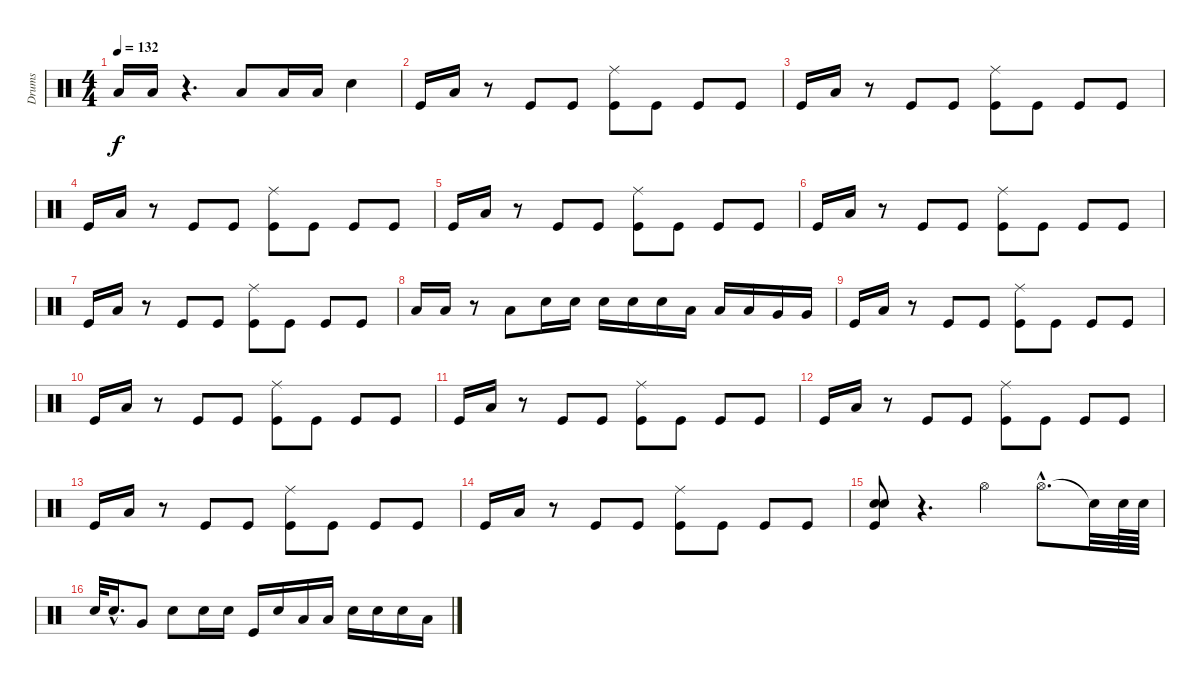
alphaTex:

\track ("Drums" "Drums") {instrument percussion}
\staff {score}
\articulation defaults
\ts (4 4)
\tempo 132
\clef neutral
\ks c "Low Tom (hit)".16{dy f} "Low Tom (hit)".16
r.4{d} "Low Tom (hit)".8 "Low Tom (hit)".16 "Low Tom (hit)".16 "Snare (hit) 2".4 |
"Kick (hit)".16 "Low Tom (hit)".16 r.8 "Kick (hit)".8 "Kick (hit)".8 ("Ride (middle)" "Kick (hit)").8 "Kick (hit)".8 "Kick (hit)".8 "Kick (hit)".8 |
"Kick (hit)".16 "Low Tom (hit)".16 r.8 "Kick (hit)".8 "Kick (hit)".8 ("Ride (middle)" "Kick (hit)").8 "Kick (hit)".8 "Kick (hit)".8 "Kick (hit)".8 |
"Kick (hit)".16 "Low Tom (hit)".16 r.8 "Kick (hit)".8 "Kick (hit)".8 ("Ride (middle)" "Kick (hit)").8 "Kick (hit)".8 "Kick (hit)".8 "Kick (hit)".8 |
"Kick (hit)".16 "Low Tom (hit)".16 r.8 "Kick (hit)".8 "Kick (hit)".8 ("Ride (middle)" "Kick (hit)").8 "Kick (hit)".8 "Kick (hit)".8 "Kick (hit)".8 |
"Kick (hit)".16 "Low Tom (hit)".16 r.8 "Kick (hit)".8 "Kick (hit)".8 ("Ride (middle)" "Kick (hit)").8 "Kick (hit)".8 "Kick (hit)".8 "Kick (hit)".8 |
"Kick (hit)".16 "Low Tom (hit)".16 r.8 "Kick (hit)".8 "Kick (hit)".8 ("Ride (middle)" "Kick (hit)").8 "Kick (hit)".8 "Kick (hit)".8 "Kick (hit)".8 |
"Low Tom (hit)".16 "Low Tom (hit)".16 r.8 "Low Tom (hit)".8 "Snare (hit) 2".16 "Snare (hit) 2".16 "Snare (hit) 2".16 "Snare (hit) 2".16 "Snare (hit) 2".16 "Low Tom (hit)".16 "Low Tom (hit)".16 "Low Tom (hit)".16 "Very Low Tom (hit)".16 "Very Low Tom (hit)".16 |
"Kick (hit)".16 "Low Tom (hit)".16 r.8 "Kick (hit)".8 "Kick (hit)".8 ("Ride (middle)" "Kick (hit)").8 "Kick (hit)".8 "Kick (hit)".8 "Kick (hit)".8 |
"Kick (hit)".16 "Low Tom (hit)".16 r.8 "Kick (hit)".8 "Kick (hit)".8 ("Ride (middle)" "Kick (hit)").8 "Kick (hit)".8 "Kick (hit)".8 "Kick (hit)".8 |
"Kick (hit)".16 "Low Tom (hit)".16 r.8 "Kick (hit)".8 "Kick (hit)".8 ("Ride (middle)" "Kick (hit)").8 "Kick (hit)".8 "Kick (hit)".8 "Kick (hit)".8 |
"Kick (hit)".16 "Low Tom (hit)".16 r.8 "Kick (hit)".8 "Kick (hit)".8 ("Ride (middle)" "Kick (hit)").8 "Kick (hit)".8 "Kick (hit)".8 "Kick (hit)".8 |
"Kick (hit)".16 "Low Tom (hit)".16 r.8 "Kick (hit)".8 "Kick (hit)".8 ("Ride (middle)" "Kick (hit)").8 "Kick (hit)".8 "Kick (hit)".8 "Kick (hit)".8 |
"Kick (hit)".16 "Low Tom (hit)".16 r.8 "Kick (hit)".8 "Kick (hit)".8 ("Ride (middle)" "Kick (hit)").8 "Kick (hit)".8 "Kick (hit)".8 "Kick (hit)".8 |
("Snare (hit) 2" "Snare (hit) 2" "Kick (hit)").8 r.4{d} "Hi-Hat (open)".4 "Hi-Hat (open)"{hac}.8{d} "Snare (hit)"{t}.32 "Snare (hit) 2".64 "Snare (hit) 2".64 |
"Snare (hit) 2".32 "Snare (hit) 2"{hac}.16{d} "Very Low Tom (hit)".8 "Snare (hit) 2".8 "Snare (hit) 2".16 "Snare (hit) 2".16 "Kick (hit)".16 "Snare (hit) 2".16 "Low Floor Tom (hit)".16 "Low Floor Tom (hit)".16 "Snare (hit) 2".16 "Snare (hit) 2".16 "Snare (hit) 2".16 "Low Floor Tom (hit)".16
